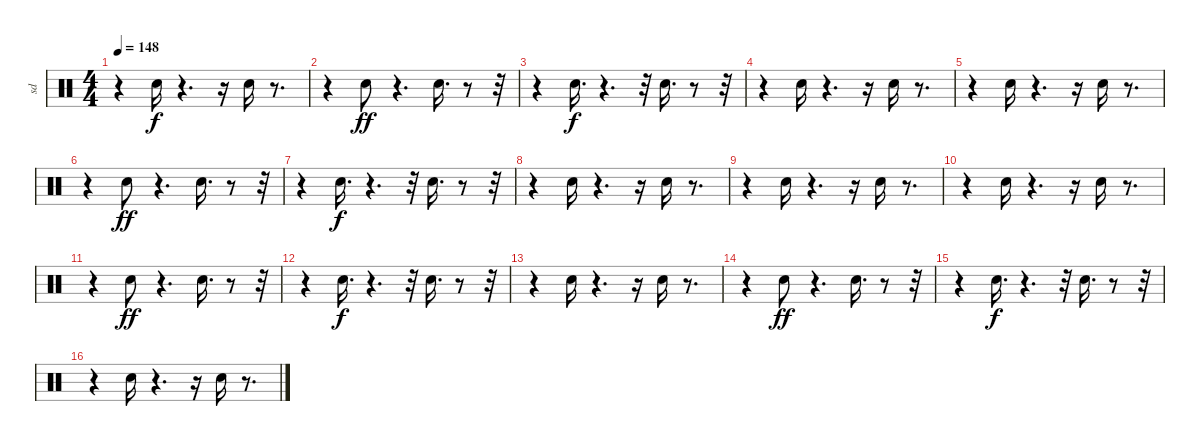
\track ("sd                  " "sd        ") {instrument percussion}
\staff {score}
\articulation defaults
\ts (4 4)
\tempo 148
\clef neutral
\ks c
r.4{dy f} "Snare (hit) 2".16 r.4{d} r.16 "Snare (hit) 2".16 r.8{d} |
r.4 "Snare (hit) 2".8{dy ff} r.4{d} "Snare (hit) 2".16{d} r.8 r.32 |
r.4 "Snare (hit) 2".16{d dy f} r.4{d} r.32 "Snare (hit) 2".16{d} r.8 r.32 |
r.4 "Snare (hit) 2".16 r.4{d} r.16 "Snare (hit) 2".16 r.8{d} |
r.4 "Snare (hit) 2".16 r.4{d} r.16 "Snare (hit) 2".16 r.8{d} |
r.4 "Snare (hit) 2".8{dy ff} r.4{d} "Snare (hit) 2".16{d} r.8 r.32 |
r.4 "Snare (hit) 2".16{d dy f} r.4{d} r.32 "Snare (hit) 2".16{d} r.8 r.32 |
r.4 "Snare (hit) 2".16 r.4{d} r.16 "Snare (hit) 2".16 r.8{d} |
r.4 "Snare (hit) 2".16 r.4{d} r.16 "Snare (hit) 2".16 r.8{d} |
r.4 "Snare (hit) 2".16 r.4{d} r.16 "Snare (hit) 2".16 r.8{d} |
r.4 "Snare (hit) 2".8{dy ff} r.4{d} "Snare (hit) 2".16{d} r.8 r.32 |
r.4 "Snare (hit) 2".16{d dy f} r.4{d} r.32 "Snare (hit) 2".16{d} r.8 r.32 |
r.4 "Snare (hit) 2".16 r.4{d} r.16 "Snare (hit) 2".16 r.8{d} |
r.4 "Snare (hit) 2".8{dy ff} r.4{d} "Snare (hit) 2".16{d} r.8 r.32 |
r.4 "Snare (hit) 2".16{d dy f} r.4{d} r.32 "Snare (hit) 2".16{d} r.8 r.32 |
r.4 "Snare (hit) 2".16 r.4{d} r.16 "Snare (hit) 2".16 r.8{d}
